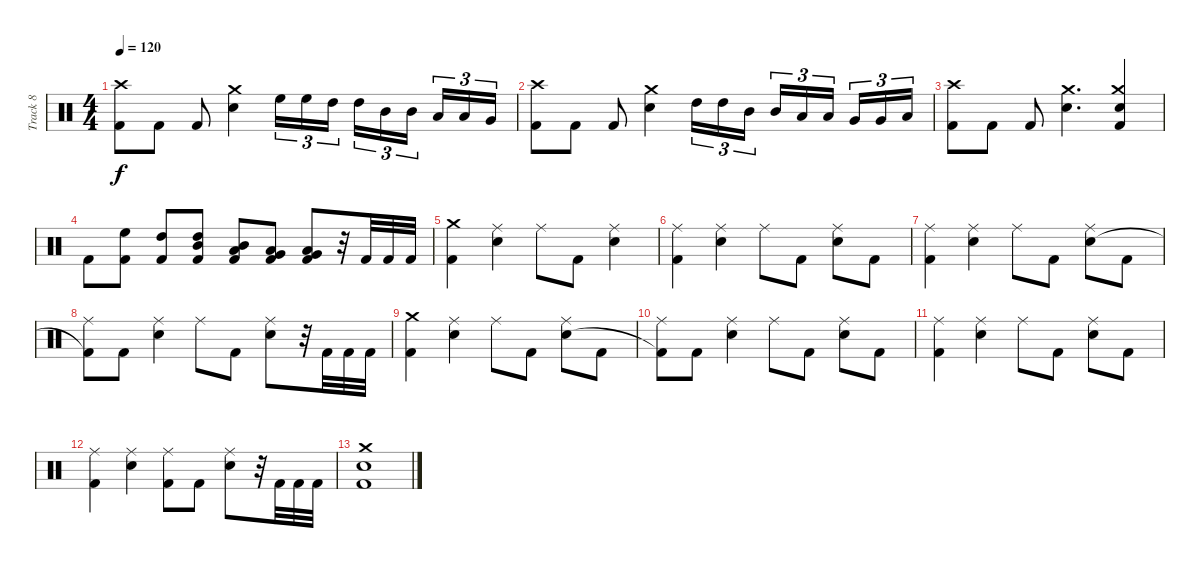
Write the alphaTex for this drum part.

\track ("Track 8" "Track 8") {instrument percussion}
\staff {score}
\articulation defaults
\ts (4 4)
\tempo 120
\clef neutral
\ks c
("Crash high (hit)" "Kick (hit) 2").8{dy f} "Kick (hit) 2".8 "Kick (hit) 2".8 ("Crash medium (hit)" "Electric Snare (hit)").4 "High Floor Tom (hit)".16{tu (3 2)} "High Floor Tom (hit)".16{tu (3 2)} "High Tom (hit)".16{tu (3 2)} "High Tom (hit)".16{tu (3 2)} "Mid Tom (hit)".16{tu (3 2)} "Mid Tom (hit)".16{tu (3 2) beam splitsecondary} "Low Tom (hit)".16{tu (3 2)} "Low Tom (hit)".16{tu (3 2)} "Very Low Tom (hit)".16{tu (3 2)} |
("Crash high (hit)" "Kick (hit) 2").8 "Kick (hit) 2".8 "Kick (hit) 2".8 ("Crash medium (hit)" "Electric Snare (hit)").4 "High Tom (hit)".16{tu (3 2)} "High Tom (hit)".16{tu (3 2)} "Mid Tom (hit)".16{tu (3 2)} "Mid Tom (hit)".16{tu (3 2)} "Low Tom (hit)".16{tu (3 2)} "Low Tom (hit)".16{tu (3 2) beam splitsecondary} "Very Low Tom (hit)".16{tu (3 2)} "Very Low Tom (hit)".16{tu (3 2)} "Low Floor Tom (hit)".16{tu (3 2)} |
("Crash high (hit)" "Kick (hit) 2").8 "Kick (hit) 2".8 "Kick (hit) 2".8 ("Crash medium (hit)" "Electric Snare (hit)").4{d} ("Crash medium (hit)" "Electric Snare (hit)" "Kick (hit) 2").4 |
"Kick (hit) 2".8 ("High Floor Tom (hit)" "Kick (hit) 2").8 ("High Tom (hit)" "Kick (hit) 2").8 ("High Tom (hit)" "Mid Tom (hit)" "Kick (hit) 2").8 ("Mid Tom (hit)" "Low Tom (hit)" "Kick (hit) 2").8 ("Low Tom (hit)" "Very Low Tom (hit)" "Kick (hit) 2").8 ("Very Low Tom (hit)" "Low Floor Tom (hit)" "Kick (hit) 2").8 r.32 "Kick (hit) 2".32 "Kick (hit) 2".32 "Kick (hit) 2".32 |
("Crash medium (hit)" "Kick (hit) 2").4 ("Ride (middle)" "Electric Snare (hit)").4 "Ride (middle)".8 "Kick (hit) 2".8 ("Ride (middle)" "Electric Snare (hit)").4 |
("Ride (middle)" "Kick (hit) 2").4 ("Ride (middle)" "Electric Snare (hit)").4 "Ride (middle)".8 "Kick (hit) 2".8 ("Ride (middle)" "Electric Snare (hit)").8 "Kick (hit) 2".8 |
("Ride (middle)" "Kick (hit) 2").4 ("Ride (middle)" "Electric Snare (hit)").4 "Ride (middle)".8 "Kick (hit) 2".8 ("Ride (middle)" "Electric Snare (hit)").8 "Kick (hit) 2".8 |
("Ride (middle)" "Kick (hit) 2"{t}).8 "Kick (hit) 2".8 ("Ride (middle)" "Electric Snare (hit)").4 "Ride (middle)".8 "Kick (hit) 2".8 ("Ride (middle)" "Electric Snare (hit)").8 r.32 "Kick (hit) 2".32 "Kick (hit) 2".32 "Kick (hit) 2".32 |
("Crash medium (hit)" "Kick (hit) 2").4 ("Ride (middle)" "Electric Snare (hit)").4 "Ride (middle)".8 "Kick (hit) 2".8 ("Ride (middle)" "Electric Snare (hit)").8 "Kick (hit) 2".8 |
("Ride (middle)" "Kick (hit) 2"{t}).8 "Kick (hit) 2".8 ("Ride (middle)" "Electric Snare (hit)").4 "Ride (middle)".8 "Kick (hit) 2".8 ("Ride (middle)" "Electric Snare (hit)").8 "Kick (hit) 2".8 |
("Ride (middle)" "Kick (hit) 2").4 ("Ride (middle)" "Electric Snare (hit)").4 "Ride (middle)".8 "Kick (hit) 2".8 ("Ride (middle)" "Electric Snare (hit)").8 "Kick (hit) 2".8 |
("Ride (middle)" "Kick (hit) 2").4 ("Ride (middle)" "Electric Snare (hit)").4 ("Ride (middle)" "Kick (hit) 2").8 "Kick (hit) 2".8 ("Ride (middle)" "Electric Snare (hit)").8 r.32 "Kick (hit) 2".32 "Kick (hit) 2".32 "Kick (hit) 2".32 |
("Crash medium (hit)" "Electric Snare (hit)" "Kick (hit) 2").1
